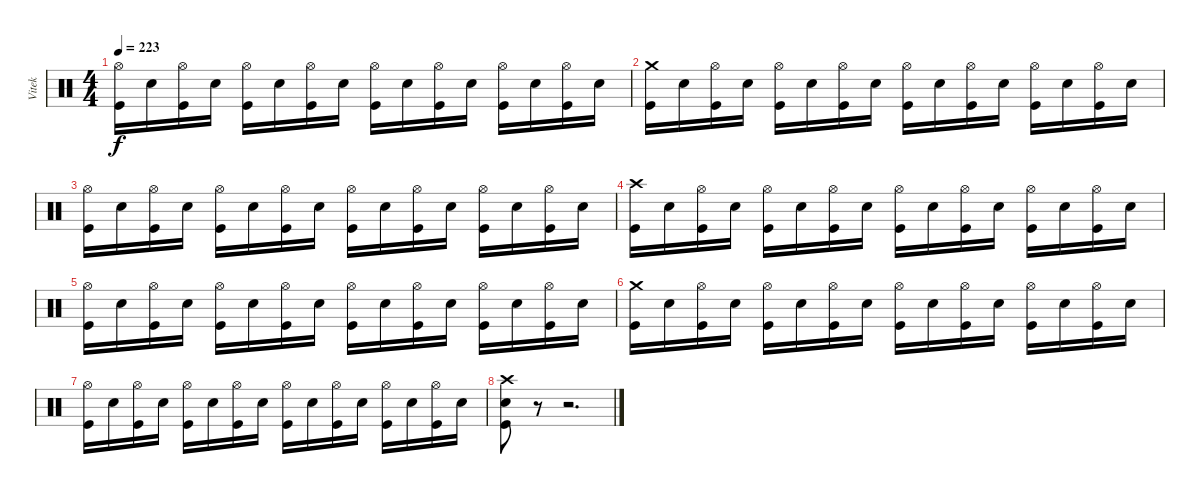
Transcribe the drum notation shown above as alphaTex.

\track ("Vitek" "Vitek") {instrument percussion}
\staff {score}
\articulation defaults
\ts (4 4)
\tempo 223
\clef neutral
\ks c
("Hi-Hat (open)" "Kick (hit)").16{dy f} "Snare (hit) 2".16 ("Hi-Hat (open)" "Kick (hit)").16 "Snare (hit) 2".16 ("Hi-Hat (open)" "Kick (hit)").16 "Snare (hit) 2".16 ("Hi-Hat (open)" "Kick (hit)").16 "Snare (hit) 2".16 ("Hi-Hat (open)" "Kick (hit)").16 "Snare (hit) 2".16 ("Hi-Hat (open)" "Kick (hit)").16 "Snare (hit) 2".16 ("Hi-Hat (open)" "Kick (hit)").16 "Snare (hit) 2".16 ("Hi-Hat (open)" "Kick (hit)").16 "Snare (hit) 2".16 |
("Crash medium (hit)" "Kick (hit)").16 "Snare (hit) 2".16 ("Hi-Hat (open)" "Kick (hit)").16 "Snare (hit) 2".16 ("Hi-Hat (open)" "Kick (hit)").16 "Snare (hit) 2".16 ("Hi-Hat (open)" "Kick (hit)").16 "Snare (hit) 2".16 ("Hi-Hat (open)" "Kick (hit)").16 "Snare (hit) 2".16 ("Hi-Hat (open)" "Kick (hit)").16 "Snare (hit) 2".16 ("Hi-Hat (open)" "Kick (hit)").16 "Snare (hit) 2".16 ("Hi-Hat (open)" "Kick (hit)").16 "Snare (hit) 2".16 |
("Hi-Hat (open)" "Kick (hit)").16 "Snare (hit) 2".16 ("Hi-Hat (open)" "Kick (hit)").16 "Snare (hit) 2".16 ("Hi-Hat (open)" "Kick (hit)").16 "Snare (hit) 2".16 ("Hi-Hat (open)" "Kick (hit)").16 "Snare (hit) 2".16 ("Hi-Hat (open)" "Kick (hit)").16 "Snare (hit) 2".16 ("Hi-Hat (open)" "Kick (hit)").16 "Snare (hit) 2".16 ("Hi-Hat (open)" "Kick (hit)").16 "Snare (hit) 2".16 ("Hi-Hat (open)" "Kick (hit)").16 "Snare (hit) 2".16 |
("Crash high (hit)" "Kick (hit)").16 "Snare (hit) 2".16 ("Hi-Hat (open)" "Kick (hit)").16 "Snare (hit) 2".16 ("Hi-Hat (open)" "Kick (hit)").16 "Snare (hit) 2".16 ("Hi-Hat (open)" "Kick (hit)").16 "Snare (hit) 2".16 ("Hi-Hat (open)" "Kick (hit)").16 "Snare (hit) 2".16 ("Hi-Hat (open)" "Kick (hit)").16 "Snare (hit) 2".16 ("Hi-Hat (open)" "Kick (hit)").16 "Snare (hit) 2".16 ("Hi-Hat (open)" "Kick (hit)").16 "Snare (hit) 2".16 |
("Hi-Hat (open)" "Kick (hit)").16 "Snare (hit) 2".16 ("Hi-Hat (open)" "Kick (hit)").16 "Snare (hit) 2".16 ("Hi-Hat (open)" "Kick (hit)").16 "Snare (hit) 2".16 ("Hi-Hat (open)" "Kick (hit)").16 "Snare (hit) 2".16 ("Hi-Hat (open)" "Kick (hit)").16 "Snare (hit) 2".16 ("Hi-Hat (open)" "Kick (hit)").16 "Snare (hit) 2".16 ("Hi-Hat (open)" "Kick (hit)").16 "Snare (hit) 2".16 ("Hi-Hat (open)" "Kick (hit)").16 "Snare (hit) 2".16 |
("Crash medium (hit)" "Kick (hit)").16 "Snare (hit) 2".16 ("Hi-Hat (open)" "Kick (hit)").16 "Snare (hit) 2".16 ("Hi-Hat (open)" "Kick (hit)").16 "Snare (hit) 2".16 ("Hi-Hat (open)" "Kick (hit)").16 "Snare (hit) 2".16 ("Hi-Hat (open)" "Kick (hit)").16 "Snare (hit) 2".16 ("Hi-Hat (open)" "Kick (hit)").16 "Snare (hit) 2".16 ("Hi-Hat (open)" "Kick (hit)").16 "Snare (hit) 2".16 ("Hi-Hat (open)" "Kick (hit)").16 "Snare (hit) 2".16 |
("Hi-Hat (open)" "Kick (hit)").16 "Snare (hit) 2".16 ("Hi-Hat (open)" "Kick (hit)").16 "Snare (hit) 2".16 ("Hi-Hat (open)" "Kick (hit)").16 "Snare (hit) 2".16 ("Hi-Hat (open)" "Kick (hit)").16 "Snare (hit) 2".16 ("Hi-Hat (open)" "Kick (hit)").16 "Snare (hit) 2".16 ("Hi-Hat (open)" "Kick (hit)").16 "Snare (hit) 2".16 ("Hi-Hat (open)" "Kick (hit)").16 "Snare (hit) 2".16 ("Hi-Hat (open)" "Kick (hit)").16 "Snare (hit) 2".16 |
("Crash high (hit)" "Snare (hit) 2" "Kick (hit)").8 r.8 r.2{d}
